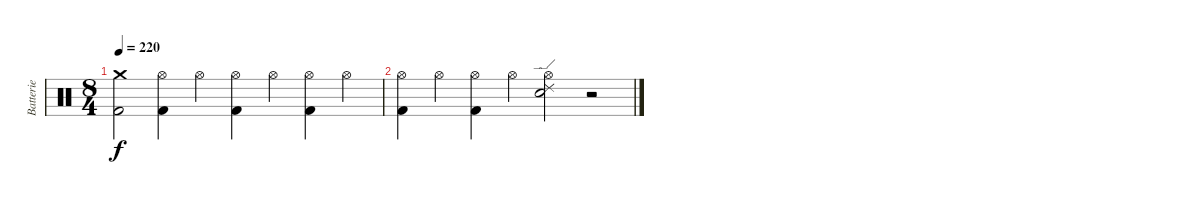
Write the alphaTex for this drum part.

\track ("Batterie" "Batterie") {instrument percussion}
\staff {score}
\articulation defaults
\ts (8 4)
\tempo 220
\clef neutral
\ks c
("Crash medium (hit)" "Kick (hit) 2").2{dy f} ("Hi-Hat (open)" "Kick (hit) 2").4 "Hi-Hat (open)".4 ("Hi-Hat (open)" "Kick (hit) 2").4 "Hi-Hat (open)".4 ("Hi-Hat (open)" "Kick (hit) 2").4 "Hi-Hat (open)".4 |
("Hi-Hat (open)" "Kick (hit) 2").4 "Hi-Hat (open)".4 ("Hi-Hat (open)" "Kick (hit) 2").4 "Hi-Hat (open)".4 ("Ride (edge) 2" "Hi-Hat (open)" "Electric Snare (hit)").2 r.2
